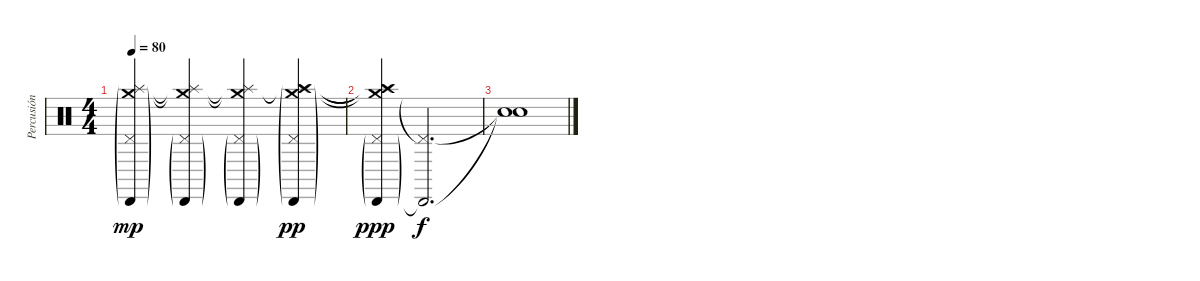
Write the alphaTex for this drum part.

\track ("Percusión" "Percusión") {instrument percussion}
\staff {score}
\articulation defaults
\ts (4 4)
\tempo 80
\clef neutral
\ks c
("Cabasa (hit)"{g} "Crash medium (hit)"{g} "Splash (hit)"{g} "Pedal Hi-Hat (hit)"{g}).4{dy mp} ("Cabasa (hit)"{g} "Crash medium (hit)"{t} "Splash (hit)"{t} "Pedal Hi-Hat (hit)"{g}).4 ("Cabasa (hit)"{g} "Crash medium (hit)"{t} "Splash (hit)"{t} "Pedal Hi-Hat (hit)"{g}).4 ("Cabasa (hit)"{g} "Crash medium (hit)"{g} "Splash (hit)"{t} "Crash high (hit)"{g} "Pedal Hi-Hat (hit)"{g}).4{dy pp} |
("Cabasa (hit)"{g} "Crash medium (hit)"{t} "Splash (hit)"{t} "Crash high (hit)"{t} "Pedal Hi-Hat (hit)"{g}).4{dy ppp} ("Cabasa (hit)"{t} "Pedal Hi-Hat (hit)"{t}).2{d dy f} |
("Snare (hit)"{t} "Snare (hit)"{t}).1
